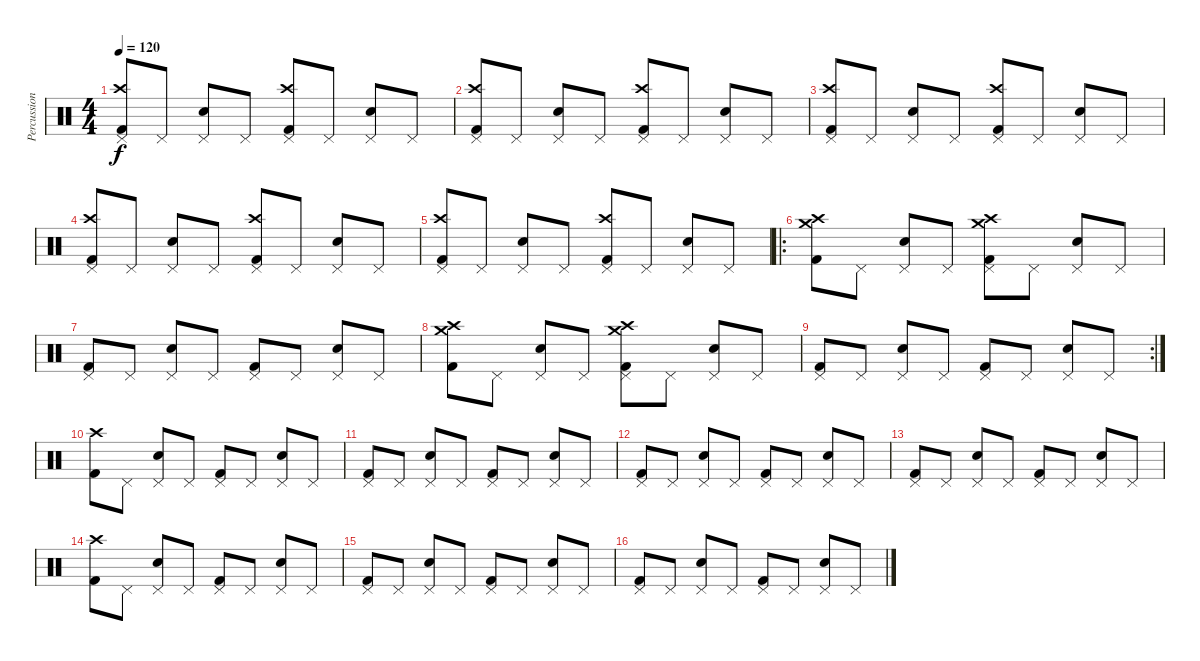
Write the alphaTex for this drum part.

\track ("Percussions" "Percussion") {instrument percussion}
\staff {score}
\articulation defaults
\ts (4 4)
\tempo 120
\clef neutral
\ks c
("Pedal Hi-Hat (hit)" "Crash high (hit)" "Kick (hit) 2").8{dy f} "Pedal Hi-Hat (hit)".8 ("Pedal Hi-Hat (hit)" "Snare (hit) 2").8 "Pedal Hi-Hat (hit)".8 ("Pedal Hi-Hat (hit)" "Crash high (hit)" "Kick (hit) 2").8 "Pedal Hi-Hat (hit)".8 ("Pedal Hi-Hat (hit)" "Snare (hit) 2").8 "Pedal Hi-Hat (hit)".8 |
("Pedal Hi-Hat (hit)" "Crash high (hit)" "Kick (hit) 2").8 "Pedal Hi-Hat (hit)".8 ("Pedal Hi-Hat (hit)" "Snare (hit) 2").8 "Pedal Hi-Hat (hit)".8 ("Pedal Hi-Hat (hit)" "Crash high (hit)" "Kick (hit) 2").8 "Pedal Hi-Hat (hit)".8 ("Pedal Hi-Hat (hit)" "Snare (hit) 2").8 "Pedal Hi-Hat (hit)".8 |
("Pedal Hi-Hat (hit)" "Crash high (hit)" "Kick (hit) 2").8 "Pedal Hi-Hat (hit)".8 ("Pedal Hi-Hat (hit)" "Snare (hit) 2").8 "Pedal Hi-Hat (hit)".8 ("Pedal Hi-Hat (hit)" "Crash high (hit)" "Kick (hit) 2").8 "Pedal Hi-Hat (hit)".8 ("Pedal Hi-Hat (hit)" "Snare (hit) 2").8 "Pedal Hi-Hat (hit)".8 |
("Pedal Hi-Hat (hit)" "Crash high (hit)" "Kick (hit) 2").8 "Pedal Hi-Hat (hit)".8 ("Pedal Hi-Hat (hit)" "Snare (hit) 2").8 "Pedal Hi-Hat (hit)".8 ("Pedal Hi-Hat (hit)" "Crash high (hit)" "Kick (hit) 2").8 "Pedal Hi-Hat (hit)".8 ("Pedal Hi-Hat (hit)" "Snare (hit) 2").8 "Pedal Hi-Hat (hit)".8 |
("Pedal Hi-Hat (hit)" "Crash high (hit)" "Kick (hit) 2").8 "Pedal Hi-Hat (hit)".8 ("Pedal Hi-Hat (hit)" "Snare (hit) 2").8 "Pedal Hi-Hat (hit)".8 ("Pedal Hi-Hat (hit)" "Crash high (hit)" "Kick (hit) 2").8 "Pedal Hi-Hat (hit)".8 ("Pedal Hi-Hat (hit)" "Snare (hit) 2").8 "Pedal Hi-Hat (hit)".8 |
\ro
("Crash high (hit)" "Crash medium (hit)" "Kick (hit) 2").8 "Pedal Hi-Hat (hit)".8 ("Pedal Hi-Hat (hit)" "Snare (hit) 2").8 "Pedal Hi-Hat (hit)".8 ("Pedal Hi-Hat (hit)" "Crash high (hit)" "Crash medium (hit)" "Kick (hit) 2").8 "Pedal Hi-Hat (hit)".8 ("Pedal Hi-Hat (hit)" "Snare (hit) 2").8 "Pedal Hi-Hat (hit)".8 |
("Pedal Hi-Hat (hit)" "Kick (hit) 2").8 "Pedal Hi-Hat (hit)".8 ("Pedal Hi-Hat (hit)" "Snare (hit) 2").8 "Pedal Hi-Hat (hit)".8 ("Pedal Hi-Hat (hit)" "Kick (hit) 2").8 "Pedal Hi-Hat (hit)".8 ("Pedal Hi-Hat (hit)" "Snare (hit) 2").8 "Pedal Hi-Hat (hit)".8 |
("Crash high (hit)" "Crash medium (hit)" "Kick (hit) 2").8 "Pedal Hi-Hat (hit)".8 ("Pedal Hi-Hat (hit)" "Snare (hit) 2").8 "Pedal Hi-Hat (hit)".8 ("Pedal Hi-Hat (hit)" "Crash high (hit)" "Crash medium (hit)" "Kick (hit) 2").8 "Pedal Hi-Hat (hit)".8 ("Pedal Hi-Hat (hit)" "Snare (hit) 2").8 "Pedal Hi-Hat (hit)".8 |
\rc 2
("Pedal Hi-Hat (hit)" "Kick (hit) 2").8 "Pedal Hi-Hat (hit)".8 ("Pedal Hi-Hat (hit)" "Snare (hit) 2").8 "Pedal Hi-Hat (hit)".8 ("Pedal Hi-Hat (hit)" "Kick (hit) 2").8 "Pedal Hi-Hat (hit)".8 ("Pedal Hi-Hat (hit)" "Snare (hit) 2").8 "Pedal Hi-Hat (hit)".8 |
("Crash high (hit)" "Kick (hit) 2").8 "Pedal Hi-Hat (hit)".8 ("Pedal Hi-Hat (hit)" "Snare (hit) 2").8 "Pedal Hi-Hat (hit)".8 ("Pedal Hi-Hat (hit)" "Kick (hit) 2").8 "Pedal Hi-Hat (hit)".8 ("Pedal Hi-Hat (hit)" "Snare (hit) 2").8 "Pedal Hi-Hat (hit)".8 |
("Pedal Hi-Hat (hit)" "Kick (hit) 2").8 "Pedal Hi-Hat (hit)".8 ("Pedal Hi-Hat (hit)" "Snare (hit) 2").8 "Pedal Hi-Hat (hit)".8 ("Pedal Hi-Hat (hit)" "Kick (hit) 2").8 "Pedal Hi-Hat (hit)".8 ("Pedal Hi-Hat (hit)" "Snare (hit) 2").8 "Pedal Hi-Hat (hit)".8 |
("Pedal Hi-Hat (hit)" "Kick (hit) 2").8 "Pedal Hi-Hat (hit)".8 ("Pedal Hi-Hat (hit)" "Snare (hit) 2").8 "Pedal Hi-Hat (hit)".8 ("Pedal Hi-Hat (hit)" "Kick (hit) 2").8 "Pedal Hi-Hat (hit)".8 ("Pedal Hi-Hat (hit)" "Snare (hit) 2").8 "Pedal Hi-Hat (hit)".8 |
("Pedal Hi-Hat (hit)" "Kick (hit) 2").8 "Pedal Hi-Hat (hit)".8 ("Pedal Hi-Hat (hit)" "Snare (hit) 2").8 "Pedal Hi-Hat (hit)".8 ("Pedal Hi-Hat (hit)" "Kick (hit) 2").8 "Pedal Hi-Hat (hit)".8 ("Pedal Hi-Hat (hit)" "Snare (hit) 2").8 "Pedal Hi-Hat (hit)".8 |
("Crash high (hit)" "Kick (hit) 2").8 "Pedal Hi-Hat (hit)".8 ("Pedal Hi-Hat (hit)" "Snare (hit) 2").8 "Pedal Hi-Hat (hit)".8 ("Pedal Hi-Hat (hit)" "Kick (hit) 2").8 "Pedal Hi-Hat (hit)".8 ("Pedal Hi-Hat (hit)" "Snare (hit) 2").8 "Pedal Hi-Hat (hit)".8 |
("Pedal Hi-Hat (hit)" "Kick (hit) 2").8 "Pedal Hi-Hat (hit)".8 ("Pedal Hi-Hat (hit)" "Snare (hit) 2").8 "Pedal Hi-Hat (hit)".8 ("Pedal Hi-Hat (hit)" "Kick (hit) 2").8 "Pedal Hi-Hat (hit)".8 ("Pedal Hi-Hat (hit)" "Snare (hit) 2").8 "Pedal Hi-Hat (hit)".8 |
("Pedal Hi-Hat (hit)" "Kick (hit) 2").8 "Pedal Hi-Hat (hit)".8 ("Pedal Hi-Hat (hit)" "Snare (hit) 2").8 "Pedal Hi-Hat (hit)".8 ("Pedal Hi-Hat (hit)" "Kick (hit) 2").8 "Pedal Hi-Hat (hit)".8 ("Pedal Hi-Hat (hit)" "Snare (hit) 2").8 "Pedal Hi-Hat (hit)".8
